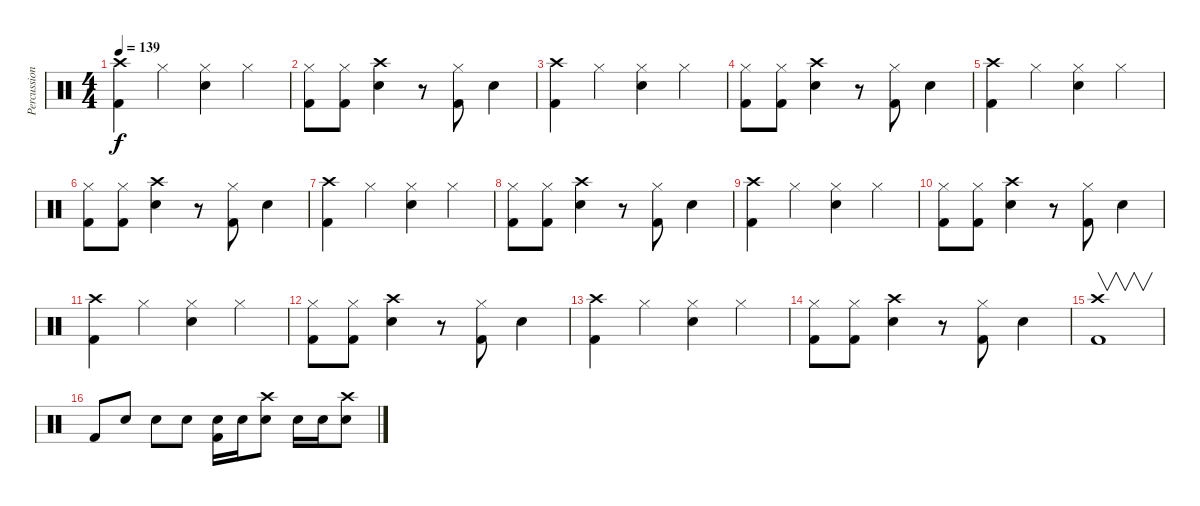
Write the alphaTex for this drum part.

\track ("Percussion" "Percussion") {instrument percussion}
\staff {score}
\articulation defaults
\ts (4 4)
\tempo 139
\clef neutral
\ks c
("Crash high (hit)" "Kick (hit) 2").4{dy f} "Hi-Hat (closed)".4 ("Hi-Hat (closed)" "Snare (hit) 2").4 "Hi-Hat (closed)".4 |
("Hi-Hat (closed)" "Kick (hit) 2").8 ("Hi-Hat (closed)" "Kick (hit) 2").8 ("Crash high (hit)" "Snare (hit) 2").4 r.8 ("Hi-Hat (closed)" "Kick (hit) 2").8 "Snare (hit) 2".4 |
("Crash high (hit)" "Kick (hit) 2").4 "Hi-Hat (closed)".4 ("Hi-Hat (closed)" "Snare (hit) 2").4 "Hi-Hat (closed)".4 |
("Hi-Hat (closed)" "Kick (hit) 2").8 ("Hi-Hat (closed)" "Kick (hit) 2").8 ("Crash high (hit)" "Snare (hit) 2").4 r.8 ("Hi-Hat (closed)" "Kick (hit) 2").8 "Snare (hit) 2".4 |
("Crash high (hit)" "Kick (hit) 2").4 "Hi-Hat (closed)".4 ("Hi-Hat (closed)" "Snare (hit) 2").4 "Hi-Hat (closed)".4 |
("Hi-Hat (closed)" "Kick (hit) 2").8 ("Hi-Hat (closed)" "Kick (hit) 2").8 ("Crash high (hit)" "Snare (hit) 2").4 r.8 ("Hi-Hat (closed)" "Kick (hit) 2").8 "Snare (hit) 2".4 |
("Crash high (hit)" "Kick (hit) 2").4 "Hi-Hat (closed)".4 ("Hi-Hat (closed)" "Snare (hit) 2").4 "Hi-Hat (closed)".4 |
("Hi-Hat (closed)" "Kick (hit) 2").8 ("Hi-Hat (closed)" "Kick (hit) 2").8 ("Crash high (hit)" "Snare (hit) 2").4 r.8 ("Hi-Hat (closed)" "Kick (hit) 2").8 "Snare (hit) 2".4 |
("Crash high (hit)" "Kick (hit) 2").4 "Hi-Hat (closed)".4 ("Hi-Hat (closed)" "Snare (hit) 2").4 "Hi-Hat (closed)".4 |
("Hi-Hat (closed)" "Kick (hit) 2").8 ("Hi-Hat (closed)" "Kick (hit) 2").8 ("Crash high (hit)" "Snare (hit) 2").4 r.8 ("Hi-Hat (closed)" "Kick (hit) 2").8 "Snare (hit) 2".4 |
("Crash high (hit)" "Kick (hit) 2").4 "Hi-Hat (closed)".4 ("Hi-Hat (closed)" "Snare (hit) 2").4 "Hi-Hat (closed)".4 |
("Hi-Hat (closed)" "Kick (hit) 2").8 ("Hi-Hat (closed)" "Kick (hit) 2").8 ("Crash high (hit)" "Snare (hit) 2").4 r.8 ("Hi-Hat (closed)" "Kick (hit) 2").8 "Snare (hit) 2".4 |
("Crash high (hit)" "Kick (hit) 2").4 "Hi-Hat (closed)".4 ("Hi-Hat (closed)" "Snare (hit) 2").4 "Hi-Hat (closed)".4 |
("Hi-Hat (closed)" "Kick (hit) 2").8 ("Hi-Hat (closed)" "Kick (hit) 2").8 ("Crash high (hit)" "Snare (hit) 2").4 r.8 ("Hi-Hat (closed)" "Kick (hit) 2").8 "Snare (hit) 2".4 |
("Crash high (hit)" "Kick (hit) 2").1{v} |
"Kick (hit) 2".8 "Snare (hit) 2".8 "Snare (hit) 2".8 "Snare (hit) 2".8 ("Snare (hit) 2" "Kick (hit) 2").16 "Snare (hit) 2".16 ("Crash high (hit)" "Snare (hit) 2").8 "Snare (hit) 2".16 "Snare (hit) 2".16 ("Crash high (hit)" "Snare (hit) 2").8
